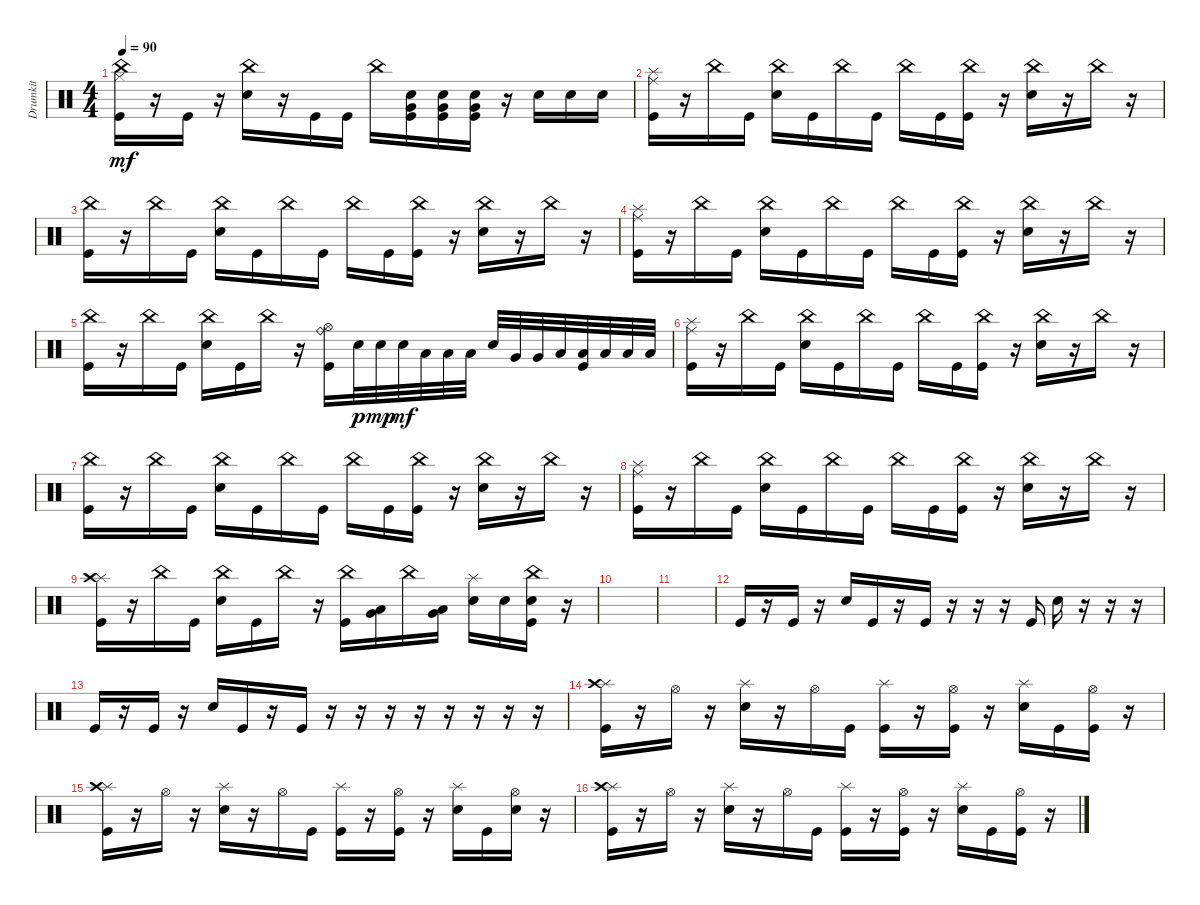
\track ("Drumkit" "Drumkit") {instrument percussion}
\staff {score}
\articulation defaults
\ts (4 4)
\tempo 90
\clef neutral
\ks c
("Kick (hit)" "Hi-Hat (closed)" "China (hit)").16{dy mf} r.16 "Kick (hit)".16 r.16 ("Snare (hit) 2" "China (hit)").16 r.16 "Kick (hit)".16 "Kick (hit)".16 "China (hit)".16 ("Very Low Tom (hit)" "Snare (hit) 2" "Kick (hit)").16 ("Very Low Tom (hit)" "Snare (hit) 2" "Kick (hit)").16 ("Very Low Tom (hit)" "Snare (hit) 2" "Kick (hit)").16 r.16 "Snare (hit) 2".16 "Snare (hit) 2".16 "Snare (hit) 2".16 |
("Kick (hit)" "Splash (hit)" "Ride (middle)").16 r.16 "China (hit)".16 "Kick (hit)".16 ("Snare (hit) 2" "China (hit)").16 "Kick (hit)".16 "China (hit)".16 "Kick (hit)".16 "China (hit)".16 "Kick (hit)".16 ("Kick (hit)" "China (hit)").16 r.16 ("Snare (hit) 2" "China (hit)").16 r.16 "China (hit)".16 r.16 |
("Kick (hit)" "China (hit)").16 r.16 "China (hit)".16 "Kick (hit)".16 ("Snare (hit) 2" "China (hit)").16 "Kick (hit)".16 "China (hit)".16 "Kick (hit)".16 "China (hit)".16 "Kick (hit)".16 ("Kick (hit)" "China (hit)").16 r.16 ("Snare (hit) 2" "China (hit)").16 r.16 "China (hit)".16 r.16 |
("Kick (hit)" "Splash (hit)" "Ride (middle)").16 r.16 "China (hit)".16 "Kick (hit)".16 ("Snare (hit) 2" "China (hit)").16 "Kick (hit)".16 "China (hit)".16 "Kick (hit)".16 "China (hit)".16 "Kick (hit)".16 ("Kick (hit)" "China (hit)").16 r.16 ("Snare (hit) 2" "China (hit)").16 r.16 "China (hit)".16 r.16 |
("Kick (hit)" "China (hit)").16 r.16 "China (hit)".16 "Kick (hit)".16 ("Snare (hit) 2" "China (hit)").16 "Kick (hit)".16 "China (hit)".16 r.16 ("Kick (hit)" "Hi-Hat (open)" "Ride (bell)").16 "Snare (hit) 2".32{dy p} "Snare (hit) 2".32{dy mp} "Snare (hit) 2".32{dy mf} "Low Tom (hit)".32 "Low Tom (hit)".32 "Low Floor Tom (hit)".32 "Snare (hit) 2".32 "Very Low Tom (hit)".32 "Very Low Tom (hit)".32 "Low Floor Tom (hit)".32 ("Low Tom (hit)" "Kick (hit)").32 "Low Floor Tom (hit)".32 "Low Floor Tom (hit)".32 "Low Floor Tom (hit)".32 |
("Kick (hit)" "Splash (hit)" "Ride (middle)").16 r.16 "China (hit)".16 "Kick (hit)".16 ("Snare (hit) 2" "China (hit)").16 "Kick (hit)".16 "China (hit)".16 "Kick (hit)".16 "China (hit)".16 "Kick (hit)".16 ("Kick (hit)" "China (hit)").16 r.16 ("Snare (hit) 2" "China (hit)").16 r.16 "China (hit)".16 r.16 |
("Kick (hit)" "China (hit)").16 r.16 "China (hit)".16 "Kick (hit)".16 ("Snare (hit) 2" "China (hit)").16 "Kick (hit)".16 "China (hit)".16 "Kick (hit)".16 "China (hit)".16 "Kick (hit)".16 ("Kick (hit)" "China (hit)").16 r.16 ("Snare (hit) 2" "China (hit)").16 r.16 "China (hit)".16 r.16 |
("Kick (hit)" "Splash (hit)" "Ride (middle)").16 r.16 "China (hit)".16 "Kick (hit)".16 ("Snare (hit) 2" "China (hit)").16 "Kick (hit)".16 "China (hit)".16 "Kick (hit)".16 "China (hit)".16 "Kick (hit)".16 ("Kick (hit)" "China (hit)").16 r.16 ("Snare (hit) 2" "China (hit)").16 r.16 "China (hit)".16 r.16 |
("Kick (hit)" "Splash (hit)" "Crash high (hit)").16 r.16 "China (hit)".16 "Kick (hit)".16 ("Snare (hit) 2" "China (hit)").16 "Kick (hit)".16 "China (hit)".16 r.16 ("Kick (hit)" "China (hit)").16 ("Low Tom (hit)" "Very Low Tom (hit)").16 "China (hit)".16 ("Very Low Tom (hit)" "Low Floor Tom (hit)").16 ("Snare (hit) 2" "Splash (hit)").16 "Snare (hit) 2".16 ("Kick (hit)" "Snare (hit) 2" "China (hit)").16 r.16 |
|
|
"Kick (hit)".16 r.16 "Kick (hit)".16 r.16 "Snare (hit) 2".16 "Kick (hit)".16 r.16 "Kick (hit)".16 r.16 r.16 r.16 "Kick (hit)".16 "Snare (hit) 2".16 r.16 r.16 r.16 |
"Kick (hit)".16 r.16 "Kick (hit)".16 r.16 "Snare (hit) 2".16 "Kick (hit)".16 r.16 "Kick (hit)".16 r.16 r.16 r.16 r.16 r.16 r.16 r.16 r.16 |
("Kick (hit)" "Splash (hit)" "Crash high (hit)").16 r.16 "Hi-Hat (open)".16 r.16 ("Snare (hit) 2" "Splash (hit)").16 r.16 "Hi-Hat (open)".16 "Kick (hit)".16 ("Kick (hit)" "Splash (hit)").16 r.16 ("Kick (hit)" "Hi-Hat (open)").16 r.16 ("Snare (hit) 2" "Splash (hit)").16 "Kick (hit)".16 ("Kick (hit)" "Hi-Hat (open)").16 r.16 |
("Kick (hit)" "Splash (hit)" "Crash high (hit)").16 r.16 "Hi-Hat (open)".16 r.16 ("Snare (hit) 2" "Splash (hit)").16 r.16 "Hi-Hat (open)".16 "Kick (hit)".16 ("Kick (hit)" "Splash (hit)").16 r.16 ("Kick (hit)" "Hi-Hat (open)").16 r.16 ("Snare (hit) 2" "Splash (hit)").16 "Kick (hit)".16 ("Snare (hit) 2" "Hi-Hat (open)").16 r.16 |
("Kick (hit)" "Splash (hit)" "Crash high (hit)").16 r.16 "Hi-Hat (open)".16 r.16 ("Snare (hit) 2" "Splash (hit)").16 r.16 "Hi-Hat (open)".16 "Kick (hit)".16 ("Kick (hit)" "Splash (hit)").16 r.16 ("Kick (hit)" "Hi-Hat (open)").16 r.16 ("Snare (hit) 2" "Splash (hit)").16 "Kick (hit)".16 ("Kick (hit)" "Hi-Hat (open)").16 r.16
